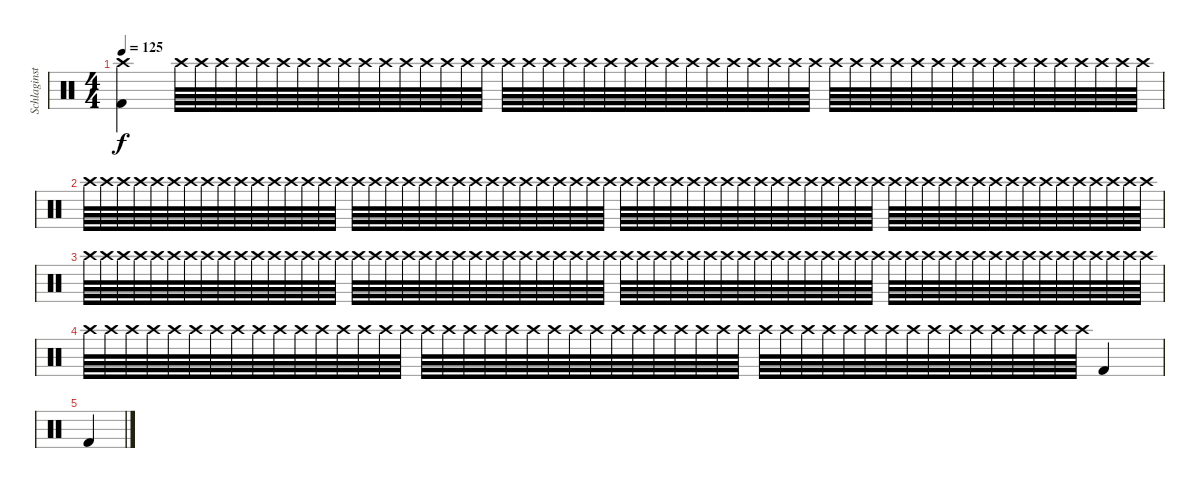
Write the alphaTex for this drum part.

\track ("Schlaginstrumente - Auswahl" "Schlaginst") {instrument percussion}
\staff {score}
\articulation defaults
\ts (4 4)
\tempo 125
\clef neutral
\ks c
("Crash high (hit)" "Kick (hit) 2").4{dy f} "Crash high (hit)".64{volume 6} "Crash high (hit)".64 "Crash high (hit)".64 "Crash high (hit)".64 "Crash high (hit)".64 "Crash high (hit)".64 "Crash high (hit)".64 "Crash high (hit)".64 "Crash high (hit)".64 "Crash high (hit)".64 "Crash high (hit)".64 "Crash high (hit)".64 "Crash high (hit)".64 "Crash high (hit)".64 "Crash high (hit)".64 "Crash high (hit)".64 "Crash high (hit)".64 "Crash high (hit)".64 "Crash high (hit)".64 "Crash high (hit)".64 "Crash high (hit)".64 "Crash high (hit)".64 "Crash high (hit)".64 "Crash high (hit)".64 "Crash high (hit)".64 "Crash high (hit)".64 "Crash high (hit)".64 "Crash high (hit)".64 "Crash high (hit)".64 "Crash high (hit)".64 "Crash high (hit)".64 "Crash high (hit)".64 "Crash high (hit)".64 "Crash high (hit)".64 "Crash high (hit)".64 "Crash high (hit)".64 "Crash high (hit)".64 "Crash high (hit)".64 "Crash high (hit)".64 "Crash high (hit)".64 "Crash high (hit)".64 "Crash high (hit)".64 "Crash high (hit)".64 "Crash high (hit)".64 "Crash high (hit)".64 "Crash high (hit)".64 "Crash high (hit)".64 "Crash high (hit)".64 |
"Crash high (hit)".64 "Crash high (hit)".64 "Crash high (hit)".64 "Crash high (hit)".64 "Crash high (hit)".64 "Crash high (hit)".64 "Crash high (hit)".64 "Crash high (hit)".64 "Crash high (hit)".64 "Crash high (hit)".64 "Crash high (hit)".64 "Crash high (hit)".64 "Crash high (hit)".64 "Crash high (hit)".64 "Crash high (hit)".64 "Crash high (hit)".64 "Crash high (hit)".64 "Crash high (hit)".64 "Crash high (hit)".64 "Crash high (hit)".64 "Crash high (hit)".64 "Crash high (hit)".64 "Crash high (hit)".64 "Crash high (hit)".64 "Crash high (hit)".64 "Crash high (hit)".64 "Crash high (hit)".64 "Crash high (hit)".64 "Crash high (hit)".64 "Crash high (hit)".64 "Crash high (hit)".64 "Crash high (hit)".64 "Crash high (hit)".64 "Crash high (hit)".64 "Crash high (hit)".64 "Crash high (hit)".64 "Crash high (hit)".64 "Crash high (hit)".64 "Crash high (hit)".64 "Crash high (hit)".64 "Crash high (hit)".64 "Crash high (hit)".64 "Crash high (hit)".64 "Crash high (hit)".64 "Crash high (hit)".64 "Crash high (hit)".64 "Crash high (hit)".64 "Crash high (hit)".64 "Crash high (hit)".64 "Crash high (hit)".64 "Crash high (hit)".64 "Crash high (hit)".64 "Crash high (hit)".64 "Crash high (hit)".64 "Crash high (hit)".64 "Crash high (hit)".64 "Crash high (hit)".64 "Crash high (hit)".64 "Crash high (hit)".64 "Crash high (hit)".64 "Crash high (hit)".64 "Crash high (hit)".64 "Crash high (hit)".64 "Crash high (hit)".64 |
"Crash high (hit)".64 "Crash high (hit)".64 "Crash high (hit)".64 "Crash high (hit)".64 "Crash high (hit)".64 "Crash high (hit)".64 "Crash high (hit)".64 "Crash high (hit)".64 "Crash high (hit)".64 "Crash high (hit)".64 "Crash high (hit)".64 "Crash high (hit)".64 "Crash high (hit)".64 "Crash high (hit)".64 "Crash high (hit)".64 "Crash high (hit)".64 "Crash high (hit)".64 "Crash high (hit)".64 "Crash high (hit)".64 "Crash high (hit)".64 "Crash high (hit)".64 "Crash high (hit)".64 "Crash high (hit)".64 "Crash high (hit)".64 "Crash high (hit)".64 "Crash high (hit)".64 "Crash high (hit)".64 "Crash high (hit)".64 "Crash high (hit)".64 "Crash high (hit)".64 "Crash high (hit)".64 "Crash high (hit)".64 "Crash high (hit)".64 "Crash high (hit)".64 "Crash high (hit)".64 "Crash high (hit)".64 "Crash high (hit)".64 "Crash high (hit)".64 "Crash high (hit)".64 "Crash high (hit)".64 "Crash high (hit)".64 "Crash high (hit)".64 "Crash high (hit)".64 "Crash high (hit)".64 "Crash high (hit)".64 "Crash high (hit)".64 "Crash high (hit)".64 "Crash high (hit)".64 "Crash high (hit)".64 "Crash high (hit)".64 "Crash high (hit)".64 "Crash high (hit)".64 "Crash high (hit)".64 "Crash high (hit)".64 "Crash high (hit)".64 "Crash high (hit)".64 "Crash high (hit)".64 "Crash high (hit)".64 "Crash high (hit)".64 "Crash high (hit)".64 "Crash high (hit)".64 "Crash high (hit)".64 "Crash high (hit)".64 "Crash high (hit)".64 |
"Crash high (hit)".64 "Crash high (hit)".64 "Crash high (hit)".64 "Crash high (hit)".64 "Crash high (hit)".64 "Crash high (hit)".64 "Crash high (hit)".64 "Crash high (hit)".64 "Crash high (hit)".64 "Crash high (hit)".64 "Crash high (hit)".64 "Crash high (hit)".64 "Crash high (hit)".64 "Crash high (hit)".64 "Crash high (hit)".64 "Crash high (hit)".64 "Crash high (hit)".64 "Crash high (hit)".64 "Crash high (hit)".64 "Crash high (hit)".64 "Crash high (hit)".64 "Crash high (hit)".64 "Crash high (hit)".64 "Crash high (hit)".64 "Crash high (hit)".64 "Crash high (hit)".64 "Crash high (hit)".64 "Crash high (hit)".64 "Crash high (hit)".64 "Crash high (hit)".64 "Crash high (hit)".64 "Crash high (hit)".64 "Crash high (hit)".64 "Crash high (hit)".64 "Crash high (hit)".64 "Crash high (hit)".64 "Crash high (hit)".64 "Crash high (hit)".64 "Crash high (hit)".64 "Crash high (hit)".64 "Crash high (hit)".64 "Crash high (hit)".64 "Crash high (hit)".64 "Crash high (hit)".64 "Crash high (hit)".64 "Crash high (hit)".64 "Crash high (hit)".64 "Crash high (hit)".64 "Kick (hit) 2".4{volume 13} |
"Kick (hit) 2".4
